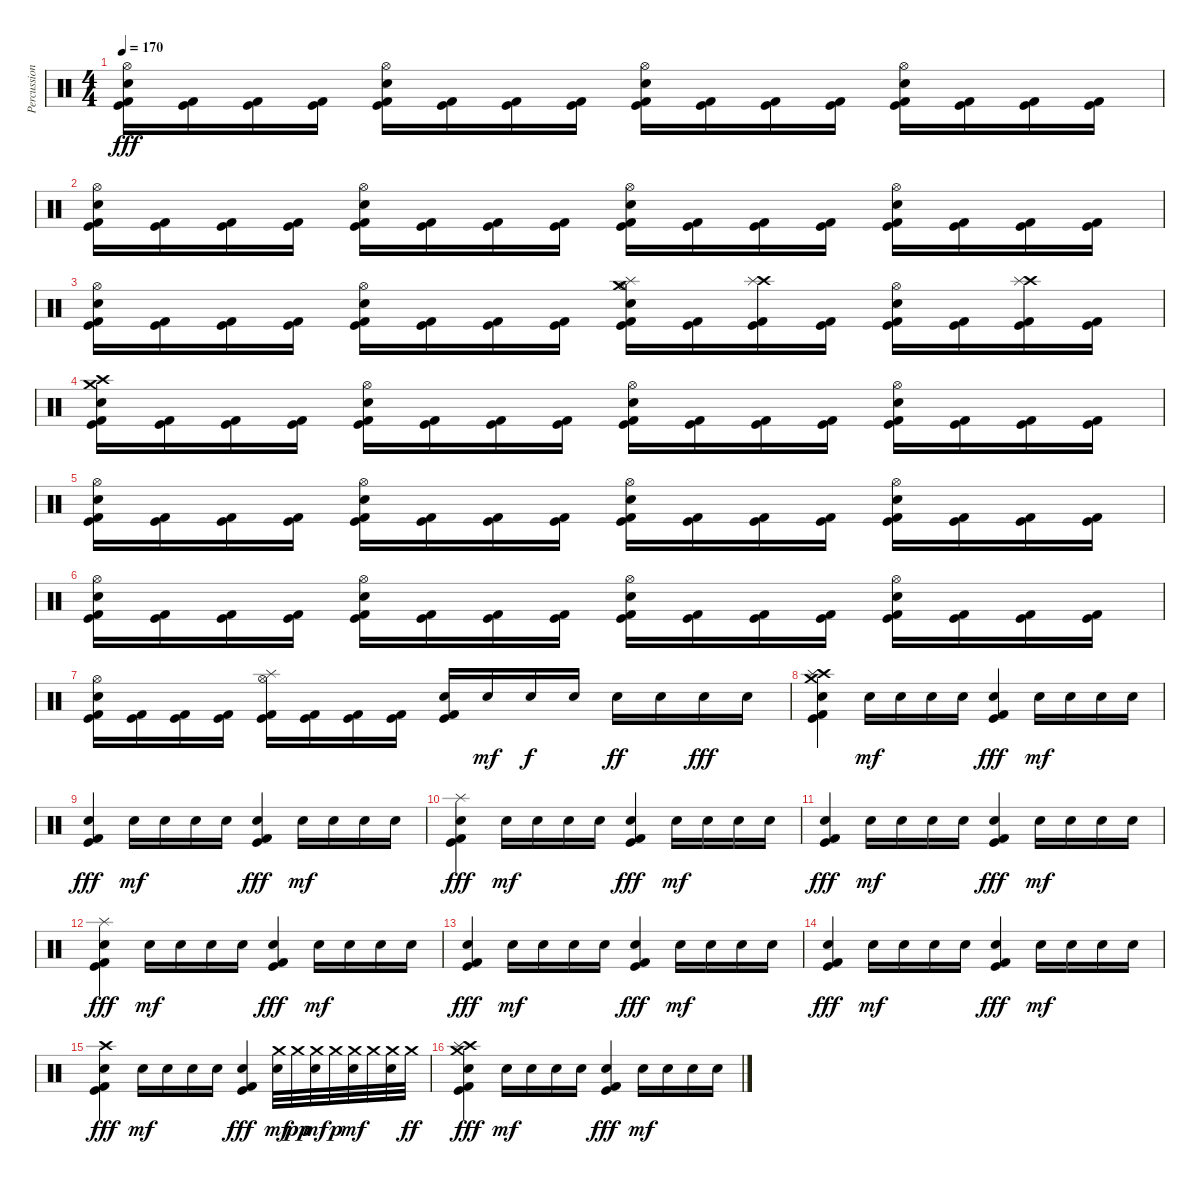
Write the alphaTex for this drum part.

\track ("Percussions" "Percussion") {instrument percussion}
\staff {score}
\articulation defaults
\ts (4 4)
\tempo 170
\clef neutral
\ks c
("Hi-Hat (open)" "Electric Snare (hit)" "Kick (hit)" "Kick (hit) 2").16{dy fff} ("Kick (hit)" "Kick (hit) 2").16 ("Kick (hit)" "Kick (hit) 2").16 ("Kick (hit)" "Kick (hit) 2").16 ("Hi-Hat (open)" "Electric Snare (hit)" "Kick (hit)" "Kick (hit) 2").16 ("Kick (hit)" "Kick (hit) 2").16 ("Kick (hit)" "Kick (hit) 2").16 ("Kick (hit)" "Kick (hit) 2").16 ("Hi-Hat (open)" "Electric Snare (hit)" "Kick (hit)" "Kick (hit) 2").16 ("Kick (hit)" "Kick (hit) 2").16 ("Kick (hit)" "Kick (hit) 2").16 ("Kick (hit)" "Kick (hit) 2").16 ("Hi-Hat (open)" "Electric Snare (hit)" "Kick (hit)" "Kick (hit) 2").16 ("Kick (hit)" "Kick (hit) 2").16 ("Kick (hit)" "Kick (hit) 2").16 ("Kick (hit)" "Kick (hit) 2").16 |
("Hi-Hat (open)" "Electric Snare (hit)" "Kick (hit)" "Kick (hit) 2").16 ("Kick (hit)" "Kick (hit) 2").16 ("Kick (hit)" "Kick (hit) 2").16 ("Kick (hit)" "Kick (hit) 2").16 ("Hi-Hat (open)" "Electric Snare (hit)" "Kick (hit)" "Kick (hit) 2").16 ("Kick (hit)" "Kick (hit) 2").16 ("Kick (hit)" "Kick (hit) 2").16 ("Kick (hit)" "Kick (hit) 2").16 ("Hi-Hat (open)" "Electric Snare (hit)" "Kick (hit)" "Kick (hit) 2").16 ("Kick (hit)" "Kick (hit) 2").16 ("Kick (hit)" "Kick (hit) 2").16 ("Kick (hit)" "Kick (hit) 2").16 ("Hi-Hat (open)" "Electric Snare (hit)" "Kick (hit)" "Kick (hit) 2").16 ("Kick (hit)" "Kick (hit) 2").16 ("Kick (hit)" "Kick (hit) 2").16 ("Kick (hit)" "Kick (hit) 2").16 |
("Hi-Hat (open)" "Electric Snare (hit)" "Kick (hit)" "Kick (hit) 2").16 ("Kick (hit)" "Kick (hit) 2").16 ("Kick (hit)" "Kick (hit) 2").16 ("Kick (hit)" "Kick (hit) 2").16 ("Hi-Hat (open)" "Electric Snare (hit)" "Kick (hit)" "Kick (hit) 2").16 ("Kick (hit)" "Kick (hit) 2").16 ("Kick (hit)" "Kick (hit) 2").16 ("Kick (hit)" "Kick (hit) 2").16 ("Crash medium (hit)" "Hi-Hat (open)" "Splash (hit)" "Electric Snare (hit)" "Kick (hit)" "Kick (hit) 2").16 ("Kick (hit)" "Kick (hit) 2").16 ("Crash high (hit)" "Splash (hit)" "Kick (hit)" "Kick (hit) 2").16 ("Kick (hit)" "Kick (hit) 2").16 ("Hi-Hat (open)" "Electric Snare (hit)" "Kick (hit)" "Kick (hit) 2").16 ("Kick (hit)" "Kick (hit) 2").16 ("Crash high (hit)" "Splash (hit)" "Kick (hit)" "Kick (hit) 2").16 ("Kick (hit)" "Kick (hit) 2").16 |
("Crash high (hit)" "Crash medium (hit)" "Electric Snare (hit)" "Kick (hit)" "Kick (hit) 2").16 ("Kick (hit)" "Kick (hit) 2").16 ("Kick (hit)" "Kick (hit) 2").16 ("Kick (hit)" "Kick (hit) 2").16 ("Hi-Hat (open)" "Electric Snare (hit)" "Kick (hit)" "Kick (hit) 2").16 ("Kick (hit)" "Kick (hit) 2").16 ("Kick (hit)" "Kick (hit) 2").16 ("Kick (hit)" "Kick (hit) 2").16 ("Hi-Hat (open)" "Electric Snare (hit)" "Kick (hit)" "Kick (hit) 2").16 ("Kick (hit)" "Kick (hit) 2").16 ("Kick (hit)" "Kick (hit) 2").16 ("Kick (hit)" "Kick (hit) 2").16 ("Hi-Hat (open)" "Electric Snare (hit)" "Kick (hit)" "Kick (hit) 2").16 ("Kick (hit)" "Kick (hit) 2").16 ("Kick (hit)" "Kick (hit) 2").16 ("Kick (hit)" "Kick (hit) 2").16 |
("Hi-Hat (open)" "Electric Snare (hit)" "Kick (hit)" "Kick (hit) 2").16 ("Kick (hit)" "Kick (hit) 2").16 ("Kick (hit)" "Kick (hit) 2").16 ("Kick (hit)" "Kick (hit) 2").16 ("Hi-Hat (open)" "Electric Snare (hit)" "Kick (hit)" "Kick (hit) 2").16 ("Kick (hit)" "Kick (hit) 2").16 ("Kick (hit)" "Kick (hit) 2").16 ("Kick (hit)" "Kick (hit) 2").16 ("Hi-Hat (open)" "Electric Snare (hit)" "Kick (hit)" "Kick (hit) 2").16 ("Kick (hit)" "Kick (hit) 2").16 ("Kick (hit)" "Kick (hit) 2").16 ("Kick (hit)" "Kick (hit) 2").16 ("Hi-Hat (open)" "Electric Snare (hit)" "Kick (hit)" "Kick (hit) 2").16 ("Kick (hit)" "Kick (hit) 2").16 ("Kick (hit)" "Kick (hit) 2").16 ("Kick (hit)" "Kick (hit) 2").16 |
("Hi-Hat (open)" "Electric Snare (hit)" "Kick (hit)" "Kick (hit) 2").16 ("Kick (hit)" "Kick (hit) 2").16 ("Kick (hit)" "Kick (hit) 2").16 ("Kick (hit)" "Kick (hit) 2").16 ("Hi-Hat (open)" "Electric Snare (hit)" "Kick (hit)" "Kick (hit) 2").16 ("Kick (hit)" "Kick (hit) 2").16 ("Kick (hit)" "Kick (hit) 2").16 ("Kick (hit)" "Kick (hit) 2").16 ("Hi-Hat (open)" "Electric Snare (hit)" "Kick (hit)" "Kick (hit) 2").16 ("Kick (hit)" "Kick (hit) 2").16 ("Kick (hit)" "Kick (hit) 2").16 ("Kick (hit)" "Kick (hit) 2").16 ("Hi-Hat (open)" "Electric Snare (hit)" "Kick (hit)" "Kick (hit) 2").16 ("Kick (hit)" "Kick (hit) 2").16 ("Kick (hit)" "Kick (hit) 2").16 ("Kick (hit)" "Kick (hit) 2").16 |
("Hi-Hat (open)" "Electric Snare (hit)" "Kick (hit)" "Kick (hit) 2").16 ("Kick (hit)" "Kick (hit) 2").16 ("Kick (hit)" "Kick (hit) 2").16 ("Kick (hit)" "Kick (hit) 2").16 ("Hi-Hat (open)" "Splash (hit)" "Kick (hit)" "Kick (hit) 2").16 ("Kick (hit)" "Kick (hit) 2").16 ("Kick (hit)" "Kick (hit) 2").16 ("Kick (hit)" "Kick (hit) 2").16 ("Electric Snare (hit)" "Kick (hit)" "Kick (hit) 2").16 "Electric Snare (hit)".16{dy mf} "Electric Snare (hit)".16{dy f} "Electric Snare (hit)".16 "Electric Snare (hit)".16{dy ff} "Electric Snare (hit)".16 "Electric Snare (hit)".16{dy fff} "Electric Snare (hit)".16 |
("Crash high (hit)" "Crash medium (hit)" "Splash (hit)" "Electric Snare (hit)" "Kick (hit)" "Kick (hit) 2").4 "Electric Snare (hit)".16{dy mf} "Electric Snare (hit)".16 "Electric Snare (hit)".16 "Electric Snare (hit)".16 ("Electric Snare (hit)" "Kick (hit)" "Kick (hit) 2").4{dy fff} "Electric Snare (hit)".16{dy mf} "Electric Snare (hit)".16 "Electric Snare (hit)".16 "Electric Snare (hit)".16 |
("Electric Snare (hit)" "Kick (hit)" "Kick (hit) 2").4{dy fff} "Electric Snare (hit)".16{dy mf} "Electric Snare (hit)".16 "Electric Snare (hit)".16 "Electric Snare (hit)".16 ("Electric Snare (hit)" "Kick (hit)" "Kick (hit) 2").4{dy fff} "Electric Snare (hit)".16{dy mf} "Electric Snare (hit)".16 "Electric Snare (hit)".16 "Electric Snare (hit)".16 |
("Splash (hit)" "Electric Snare (hit)" "Kick (hit)" "Kick (hit) 2").4{dy fff} "Electric Snare (hit)".16{dy mf} "Electric Snare (hit)".16 "Electric Snare (hit)".16 "Electric Snare (hit)".16 ("Electric Snare (hit)" "Kick (hit)" "Kick (hit) 2").4{dy fff} "Electric Snare (hit)".16{dy mf} "Electric Snare (hit)".16 "Electric Snare (hit)".16 "Electric Snare (hit)".16 |
("Electric Snare (hit)" "Kick (hit)" "Kick (hit) 2").4{dy fff} "Electric Snare (hit)".16{dy mf} "Electric Snare (hit)".16 "Electric Snare (hit)".16 "Electric Snare (hit)".16 ("Electric Snare (hit)" "Kick (hit)" "Kick (hit) 2").4{dy fff} "Electric Snare (hit)".16{dy mf} "Electric Snare (hit)".16 "Electric Snare (hit)".16 "Electric Snare (hit)".16 |
("Splash (hit)" "Electric Snare (hit)" "Kick (hit)" "Kick (hit) 2").4{dy fff} "Electric Snare (hit)".16{dy mf} "Electric Snare (hit)".16 "Electric Snare (hit)".16 "Electric Snare (hit)".16 ("Electric Snare (hit)" "Kick (hit)" "Kick (hit) 2").4{dy fff} "Electric Snare (hit)".16{dy mf} "Electric Snare (hit)".16 "Electric Snare (hit)".16 "Electric Snare (hit)".16 |
("Electric Snare (hit)" "Kick (hit)" "Kick (hit) 2").4{dy fff} "Electric Snare (hit)".16{dy mf} "Electric Snare (hit)".16 "Electric Snare (hit)".16 "Electric Snare (hit)".16 ("Electric Snare (hit)" "Kick (hit)" "Kick (hit) 2").4{dy fff} "Electric Snare (hit)".16{dy mf} "Electric Snare (hit)".16 "Electric Snare (hit)".16 "Electric Snare (hit)".16 |
("Electric Snare (hit)" "Kick (hit)" "Kick (hit) 2").4{dy fff} "Electric Snare (hit)".16{dy mf} "Electric Snare (hit)".16 "Electric Snare (hit)".16 "Electric Snare (hit)".16 ("Electric Snare (hit)" "Kick (hit)" "Kick (hit) 2").4{dy fff} "Electric Snare (hit)".16{dy mf} "Electric Snare (hit)".16 "Electric Snare (hit)".16 "Electric Snare (hit)".16 |
("Crash high (hit)" "Electric Snare (hit)" "Kick (hit)" "Kick (hit) 2").4{dy fff} "Electric Snare (hit)".16{dy mf} "Electric Snare (hit)".16 "Electric Snare (hit)".16 "Electric Snare (hit)".16 ("Electric Snare (hit)" "Kick (hit)" "Kick (hit) 2").4{dy fff} ("Crash medium (hit)" "Electric Snare (hit)").32{dy mf} "Crash medium (hit)".32{dy pp} ("Crash medium (hit)" "Electric Snare (hit)").32{dy mf} "Crash medium (hit)".32{dy p} ("Crash medium (hit)" "Electric Snare (hit)").32{dy mf} "Crash medium (hit)".32 ("Crash medium (hit)" "Electric Snare (hit)").32 "Crash medium (hit)".32{dy ff} |
("Crash medium (hit)" "Crash high (hit)" "Splash (hit)" "Electric Snare (hit)" "Kick (hit)" "Kick (hit) 2").4{dy fff} "Electric Snare (hit)".16{dy mf} "Electric Snare (hit)".16 "Electric Snare (hit)".16 "Electric Snare (hit)".16 ("Electric Snare (hit)" "Kick (hit)" "Kick (hit) 2").4{dy fff} "Electric Snare (hit)".16{dy mf} "Electric Snare (hit)".16 "Electric Snare (hit)".16 "Electric Snare (hit)".16
